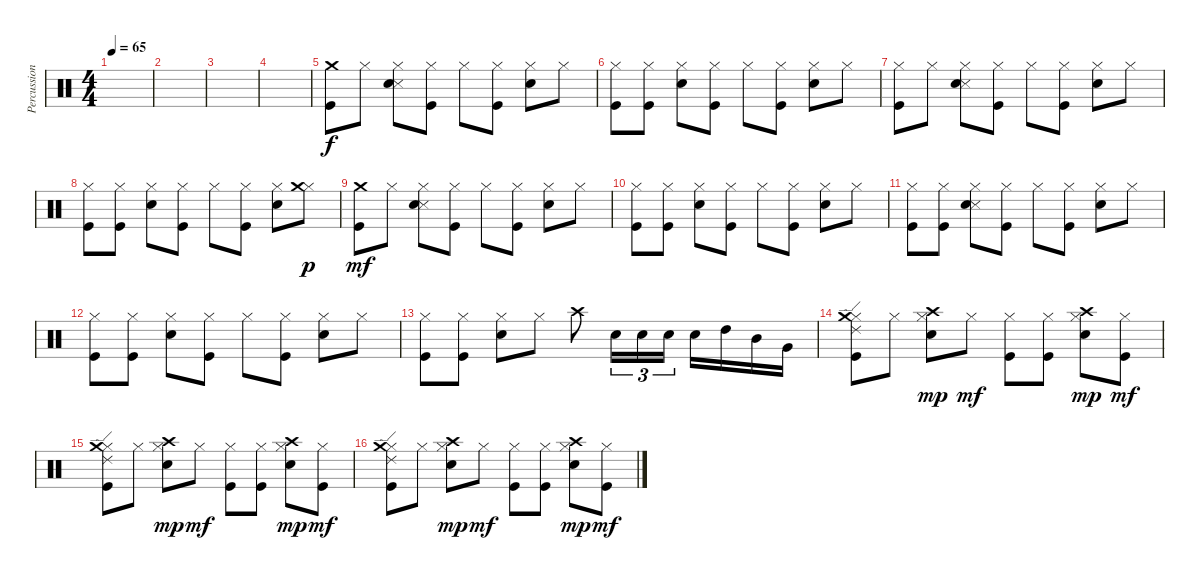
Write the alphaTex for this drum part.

\track ("Percussion" "Percussion") {instrument percussion}
\staff {score}
\articulation defaults
\ts (4 4)
\tempo 65
\clef neutral
\ks c
|
|
|
|
("Crash medium (hit)" "Kick (hit)").8 "Hi-Hat (closed)".8 ("Snare (side stick) 3" "Hi-Hat (closed)" "Snare (hit) 2").8 ("Hi-Hat (closed)" "Kick (hit)").8 "Hi-Hat (closed)".8 ("Hi-Hat (closed)" "Kick (hit)").8 ("Hi-Hat (closed)" "Snare (hit) 2").8 "Hi-Hat (closed)".8 |
("Hi-Hat (closed)" "Kick (hit)").8 ("Hi-Hat (closed)" "Kick (hit)").8 ("Hi-Hat (closed)" "Snare (hit) 2").8 ("Hi-Hat (closed)" "Kick (hit)").8 "Hi-Hat (closed)".8 ("Hi-Hat (closed)" "Kick (hit)").8 ("Hi-Hat (closed)" "Snare (hit) 2").8 "Hi-Hat (closed)".8 |
("Hi-Hat (closed)" "Kick (hit)").8 "Hi-Hat (closed)".8 ("Snare (side stick) 3" "Hi-Hat (closed)" "Snare (hit) 2").8 ("Hi-Hat (closed)" "Kick (hit)").8 "Hi-Hat (closed)".8 ("Hi-Hat (closed)" "Kick (hit)").8 ("Hi-Hat (closed)" "Snare (hit) 2").8 "Hi-Hat (closed)".8 |
("Hi-Hat (closed)" "Kick (hit)").8 ("Hi-Hat (closed)" "Kick (hit)").8 ("Hi-Hat (closed)" "Snare (hit) 2").8 ("Hi-Hat (closed)" "Kick (hit)").8 "Hi-Hat (closed)".8 ("Hi-Hat (closed)" "Kick (hit)").8 ("Hi-Hat (closed)" "Snare (hit) 2").8 ("Hi-Hat (closed)" "Crash medium (hit)").8{dy p} |
("Crash medium (hit)" "Kick (hit)").8{dy mf} "Hi-Hat (closed)".8 ("Snare (side stick) 3" "Hi-Hat (closed)" "Snare (hit) 2").8 ("Hi-Hat (closed)" "Kick (hit)").8 "Hi-Hat (closed)".8 ("Hi-Hat (closed)" "Kick (hit)").8 ("Hi-Hat (closed)" "Snare (hit) 2").8 "Hi-Hat (closed)".8 |
("Hi-Hat (closed)" "Kick (hit)").8 ("Hi-Hat (closed)" "Kick (hit)").8 ("Hi-Hat (closed)" "Snare (hit) 2").8 ("Hi-Hat (closed)" "Kick (hit)").8 "Hi-Hat (closed)".8 ("Hi-Hat (closed)" "Kick (hit)").8 ("Hi-Hat (closed)" "Snare (hit) 2").8 "Hi-Hat (closed)".8 |
("Hi-Hat (closed)" "Kick (hit)").8 ("Hi-Hat (closed)" "Kick (hit)").8 ("Snare (side stick) 3" "Hi-Hat (closed)" "Snare (hit) 2").8 ("Hi-Hat (closed)" "Kick (hit)").8 "Hi-Hat (closed)".8 ("Hi-Hat (closed)" "Kick (hit)").8 ("Hi-Hat (closed)" "Snare (hit) 2").8 "Hi-Hat (closed)".8 |
("Hi-Hat (closed)" "Kick (hit)").8 ("Hi-Hat (closed)" "Kick (hit)").8 ("Hi-Hat (closed)" "Snare (hit) 2").8 ("Hi-Hat (closed)" "Kick (hit)").8 "Hi-Hat (closed)".8 ("Hi-Hat (closed)" "Kick (hit)").8 ("Hi-Hat (closed)" "Snare (hit) 2").8 "Hi-Hat (closed)".8 |
("Hi-Hat (closed)" "Kick (hit)").8 ("Hi-Hat (closed)" "Kick (hit)").8 ("Hi-Hat (closed)" "Snare (hit) 2").8 "Hi-Hat (closed)".8 "Crash high (hit)".8 "Snare (hit) 2".16{tu (3 2)} "Snare (hit) 2".16{tu (3 2)} "Snare (hit) 2".16{tu (3 2)} "Snare (hit) 2".16 "High Tom (hit)".16 "Mid Tom (hit)".16 "Very Low Tom (hit)".16 |
("Hi-Hat (closed)" "Ride (edge) 2" "Crash medium (hit)" "Kick (hit)").8 "Hi-Hat (closed)".8 ("Hi-Hat (closed)" "Snare (hit) 2" "Crash high (hit)").8{dy mp} "Hi-Hat (closed)".8{dy mf} ("Hi-Hat (closed)" "Kick (hit)").8 ("Hi-Hat (closed)" "Kick (hit)").8 ("Hi-Hat (closed)" "Snare (hit) 2" "Crash high (hit)").8{dy mp} ("Hi-Hat (closed)" "Kick (hit)").8{dy mf} |
("Hi-Hat (closed)" "Ride (edge) 2" "Crash medium (hit)" "Kick (hit)").8 "Hi-Hat (closed)".8 ("Hi-Hat (closed)" "Snare (hit) 2" "Crash high (hit)").8{dy mp} "Hi-Hat (closed)".8{dy mf} ("Hi-Hat (closed)" "Kick (hit)").8 ("Hi-Hat (closed)" "Kick (hit)").8 ("Hi-Hat (closed)" "Snare (hit) 2" "Crash high (hit)").8{dy mp} ("Hi-Hat (closed)" "Kick (hit)").8{dy mf} |
("Hi-Hat (closed)" "Ride (edge) 2" "Crash medium (hit)" "Kick (hit)").8 "Hi-Hat (closed)".8 ("Hi-Hat (closed)" "Snare (hit) 2" "Crash high (hit)").8{dy mp} "Hi-Hat (closed)".8{dy mf} ("Hi-Hat (closed)" "Kick (hit)").8 ("Hi-Hat (closed)" "Kick (hit)").8 ("Hi-Hat (closed)" "Snare (hit) 2" "Crash high (hit)").8{dy mp} ("Hi-Hat (closed)" "Kick (hit)").8{dy mf}
